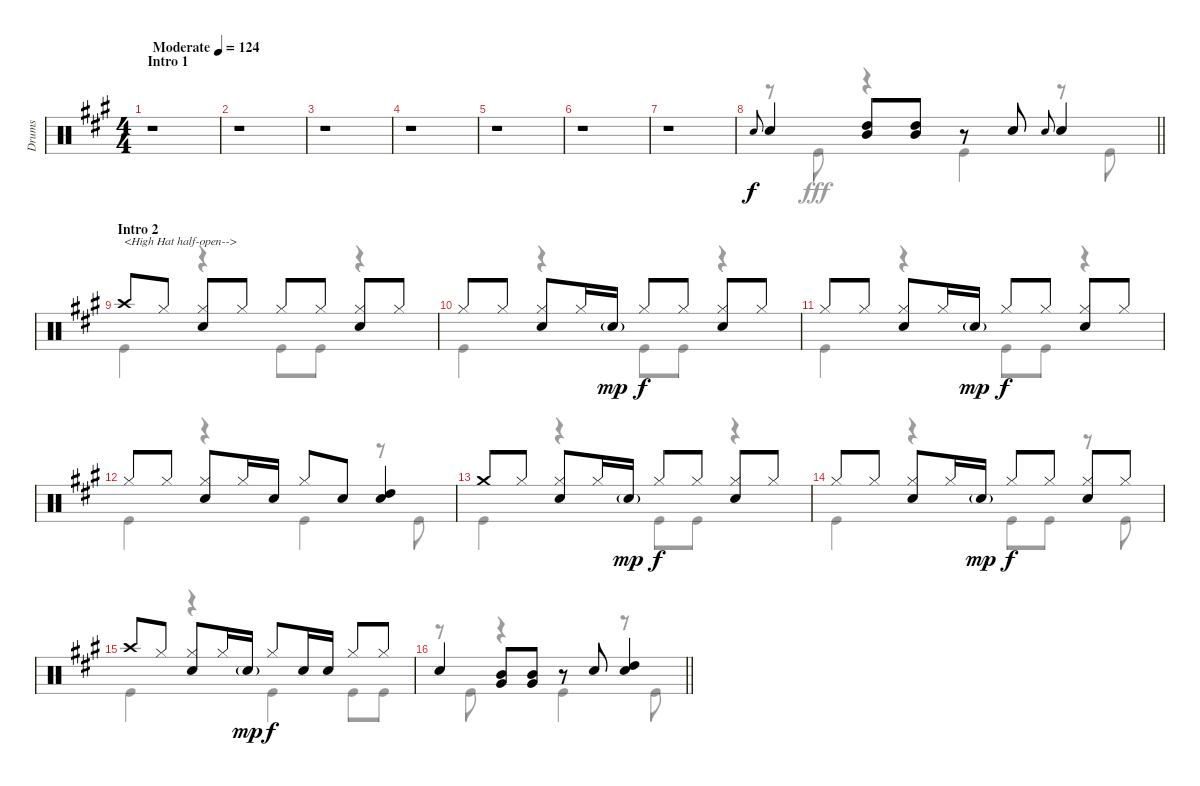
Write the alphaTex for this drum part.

\track ("Drums" "Drums") {instrument percussion}
\staff {score}
\articulation defaults
\voice
\ts (4 4)
\section ("" "Intro 1")
\tempo (124 "Moderate")
\clef neutral
\ks a
r.1{dy f} |
r.1 |
r.1 |
r.1 |
r.1 |
r.1 |
r.1 |
\barLineRight lightlight "Snare (hit) 2".8{gr onbeat} "Snare (hit) 2".4
("High Tom (hit)" "Mid Tom (hit)").8 ("High Tom (hit)" "Mid Tom (hit)").8 r.8 "Snare (hit) 2".8 "Snare (hit) 2".8{gr onbeat} "Snare (hit) 2".4 |
\section ("" "Intro 2")
"Crash high (hit)".8{txt "<High Hat half-open-->"} "Hi-Hat (closed)".8 ("Hi-Hat (closed)" "Snare (hit) 2").8 "Hi-Hat (closed)".8 "Hi-Hat (closed)".8 "Hi-Hat (closed)".8 ("Hi-Hat (closed)" "Snare (hit) 2").8 "Hi-Hat (closed)".8 |
"Hi-Hat (closed)".8 "Hi-Hat (closed)".8 ("Hi-Hat (closed)" "Snare (hit) 2").8 "Hi-Hat (closed)".16 "Snare (hit) 2"{g}.16{dy mp} "Hi-Hat (closed)".8{dy f} "Hi-Hat (closed)".8 ("Hi-Hat (closed)" "Snare (hit) 2").8 "Hi-Hat (closed)".8 |
"Hi-Hat (closed)".8 "Hi-Hat (closed)".8 ("Hi-Hat (closed)" "Snare (hit) 2").8 "Hi-Hat (closed)".16 "Snare (hit) 2"{g}.16{dy mp} "Hi-Hat (closed)".8{dy f} "Hi-Hat (closed)".8 ("Hi-Hat (closed)" "Snare (hit) 2").8 "Hi-Hat (closed)".8 |
"Hi-Hat (closed)".8 "Hi-Hat (closed)".8 ("Hi-Hat (closed)" "Snare (hit) 2").8 "Hi-Hat (closed)".16 "Snare (hit) 2".16 "Hi-Hat (closed)".8 "Snare (hit) 2".8 ("Snare (hit) 2" "High Tom (hit)").4 |
"Crash medium (hit)".8 "Hi-Hat (closed)".8 ("Hi-Hat (closed)" "Snare (hit) 2").8 "Hi-Hat (closed)".16 "Snare (hit) 2"{g}.16{dy mp} "Hi-Hat (closed)".8{dy f} "Hi-Hat (closed)".8 ("Hi-Hat (closed)" "Snare (hit) 2").8 "Hi-Hat (closed)".8 |
"Hi-Hat (closed)".8 "Hi-Hat (closed)".8 ("Hi-Hat (closed)" "Snare (hit) 2").8 "Hi-Hat (closed)".16 "Snare (hit) 2"{g}.16{dy mp} "Hi-Hat (closed)".8{dy f} "Hi-Hat (closed)".8 ("Hi-Hat (closed)" "Snare (hit) 2").8 "Hi-Hat (closed)".8 |
"Crash high (hit)".8 "Hi-Hat (closed)".8 ("Hi-Hat (closed)" "Snare (hit) 2").8 "Hi-Hat (closed)".16 "Snare (hit) 2"{g}.16{dy mp} "Hi-Hat (closed)".8{dy f} "Snare (hit) 2".16 "Snare (hit) 2".16 "Hi-Hat (closed)".8 "Hi-Hat (closed)".8 |
\barLineRight lightlight "Snare (hit) 2".4
("Mid Tom (hit)" "Very Low Tom (hit)").8 ("Mid Tom (hit)" "Very Low Tom (hit)").8 r.8 "Snare (hit) 2".8 ("Snare (hit) 2" "High Tom (hit)").4
\voice
\clef neutral
\ottava regular
\simile none
\ks a
r.1{dy fff} |
r.1 |
r.1 |
r.1 |
r.1 |
r.1 |
r.1 |
\barLineRight lightlight
r.8 "Kick (hit)".8 r.4 "Kick (hit)".4 r.8 "Kick (hit)".8 |
"Kick (hit)".4 r.4 "Kick (hit)".8 "Kick (hit)".8 r.4 |
"Kick (hit)".4 r.4 "Kick (hit)".8 "Kick (hit)".8 r.4 |
"Kick (hit)".4 r.4 "Kick (hit)".8 "Kick (hit)".8 r.4 |
"Kick (hit)".4 r.4 "Kick (hit)".4 r.8 "Kick (hit)".8 |
"Kick (hit)".4 r.4 "Kick (hit)".8 "Kick (hit)".8 r.4 |
"Kick (hit)".4 r.4 "Kick (hit)".8 "Kick (hit)".8 r.8 "Kick (hit)".8 |
"Kick (hit)".4 r.4 "Kick (hit)".4 "Kick (hit)".8 "Kick (hit)".8 |
\barLineRight lightlight
r.8 "Kick (hit)".8 r.4 "Kick (hit)".4 r.8 "Kick (hit)".8
